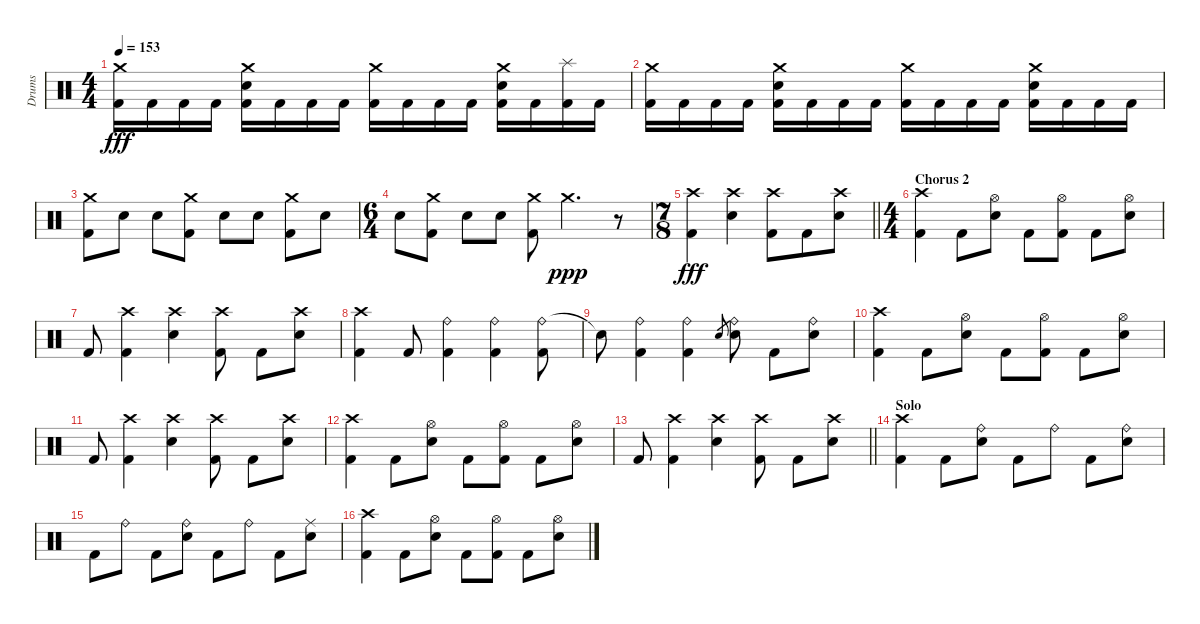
\track ("Drums" "Drums") {instrument percussion}
\staff {score}
\articulation defaults
\ts (4 4)
\tempo 153
\clef neutral
\ks c
("Crash medium (hit)" "Kick (hit) 2").16{dy fff} "Kick (hit) 2".16 "Kick (hit) 2".16 "Kick (hit) 2".16 ("Crash medium (hit)" "Electric Snare (hit)" "Kick (hit) 2").16 "Kick (hit) 2".16 "Kick (hit) 2".16 "Kick (hit) 2".16 ("Crash medium (hit)" "Kick (hit) 2").16 "Kick (hit) 2".16 "Kick (hit) 2".16 "Kick (hit) 2".16 ("Crash medium (hit)" "Electric Snare (hit)" "Kick (hit) 2").16 "Kick (hit) 2".16 ("Splash (hit)" "Kick (hit) 2").16 "Kick (hit) 2".16 |
("Crash medium (hit)" "Kick (hit) 2").16 "Kick (hit) 2".16 "Kick (hit) 2".16 "Kick (hit) 2".16 ("Crash medium (hit)" "Electric Snare (hit)" "Kick (hit) 2").16 "Kick (hit) 2".16 "Kick (hit) 2".16 "Kick (hit) 2".16 ("Crash medium (hit)" "Kick (hit) 2").16 "Kick (hit) 2".16 "Kick (hit) 2".16 "Kick (hit) 2".16 ("Crash medium (hit)" "Electric Snare (hit)" "Kick (hit) 2").16 "Kick (hit) 2".16 "Kick (hit) 2".16 "Kick (hit) 2".16 |
("Crash medium (hit)" "Kick (hit) 2").8 "Electric Snare (hit)".8 "Electric Snare (hit)".8 ("Crash medium (hit)" "Kick (hit) 2").8 "Electric Snare (hit)".8 "Electric Snare (hit)".8 ("Crash medium (hit)" "Kick (hit) 2").8 "Electric Snare (hit)".8 |
\ts (6 4)
"Electric Snare (hit)".8 ("Crash medium (hit)" "Kick (hit) 2").8 "Electric Snare (hit)".8 "Electric Snare (hit)".8 ("Crash medium (hit)" "Kick (hit) 2").8 "Crash medium (hit)".2{d dy ppp} r.8 |
\ts (7 8)
\barLineRight lightlight
("Crash high (hit)" "Kick (hit) 2").4{dy fff} ("Crash high (hit)" "Electric Snare (hit)").4 ("Crash high (hit)" "Kick (hit) 2").8 "Kick (hit) 2".8 ("Crash high (hit)" "Electric Snare (hit)").8 |
\ts (4 4)
\section ("" "Chorus 2")
("Crash high (hit)" "Kick (hit) 2").4 "Kick (hit) 2".8 ("Hi-Hat (open)" "Electric Snare (hit)").8 "Kick (hit) 2".8 ("Hi-Hat (open)" "Kick (hit) 2").8 "Kick (hit) 2".8 ("Hi-Hat (open)" "Electric Snare (hit)").8 |
"Kick (hit) 2".8 ("Crash high (hit)" "Kick (hit) 2").4 ("Crash high (hit)" "Electric Snare (hit)").4 ("Crash high (hit)" "Kick (hit) 2").8 "Kick (hit) 2".8 ("Crash high (hit)" "Electric Snare (hit)").8 |
("Crash high (hit)" "Kick (hit) 2").4 "Kick (hit) 2".8 ("Ride (bell)" "Kick (hit) 2").4 ("Ride (bell)" "Kick (hit) 2").4 ("Ride (bell)" "Kick (hit) 2").8 |
"Snare (hit)"{t}.8 ("Ride (bell)" "Kick (hit) 2").4 ("Ride (bell)" "Kick (hit) 2").4 "Electric Snare (hit)".8{gr} ("Ride (bell)" "Electric Snare (hit)").8 "Kick (hit) 2".8 ("Ride (bell)" "Electric Snare (hit)").8 |
("Crash high (hit)" "Kick (hit) 2").4 "Kick (hit) 2".8 ("Hi-Hat (open)" "Electric Snare (hit)").8 "Kick (hit) 2".8 ("Hi-Hat (open)" "Kick (hit) 2").8 "Kick (hit) 2".8 ("Hi-Hat (open)" "Electric Snare (hit)").8 |
"Kick (hit) 2".8 ("Crash high (hit)" "Kick (hit) 2").4 ("Crash high (hit)" "Electric Snare (hit)").4 ("Crash high (hit)" "Kick (hit) 2").8 "Kick (hit) 2".8 ("Crash high (hit)" "Electric Snare (hit)").8 |
("Crash high (hit)" "Kick (hit) 2").4 "Kick (hit) 2".8 ("Hi-Hat (open)" "Electric Snare (hit)").8 "Kick (hit) 2".8 ("Hi-Hat (open)" "Kick (hit) 2").8 "Kick (hit) 2".8 ("Hi-Hat (open)" "Electric Snare (hit)").8 |
\barLineRight lightlight "Kick (hit) 2".8
("Crash high (hit)" "Kick (hit) 2").4 ("Crash high (hit)" "Electric Snare (hit)").4 ("Crash high (hit)" "Kick (hit) 2").8 "Kick (hit) 2".8 ("Crash high (hit)" "Electric Snare (hit)").8 |
\section ("" "Solo")
("Crash high (hit)" "Kick (hit) 2").4 "Kick (hit) 2".8 ("Ride (bell)" "Electric Snare (hit)").8 "Kick (hit) 2".8 "Ride (bell)".8 "Kick (hit) 2".8 ("Ride (bell)" "Electric Snare (hit)").8 |
"Kick (hit) 2".8 "Ride (bell)".8 "Kick (hit) 2".8 ("Ride (bell)" "Electric Snare (hit)").8 "Kick (hit) 2".8 "Ride (bell)".8 "Kick (hit) 2".8 ("Ride (middle)" "Electric Snare (hit)").8 |
("Crash high (hit)" "Kick (hit) 2").4 "Kick (hit) 2".8 ("Hi-Hat (open)" "Electric Snare (hit)").8 "Kick (hit) 2".8 ("Hi-Hat (open)" "Kick (hit) 2").8 "Kick (hit) 2".8 ("Hi-Hat (open)" "Electric Snare (hit)").8
